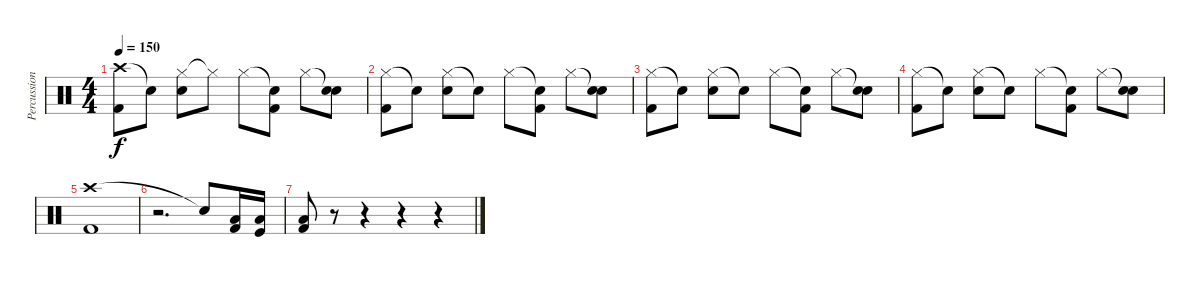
\track ("Percussion" "Percussion") {instrument percussion}
\staff {score}
\articulation defaults
\ts (4 4)
\tempo 150
\clef neutral
\ks c
("Crash high (hit)" "Kick (hit) 2").8{dy f} "Snare (hit)"{t}.8 ("Hi-Hat (closed)" "Snare (hit) 2").8 "Hi-Hat (closed)"{t}.8 "Hi-Hat (closed)".8 ("Snare (hit)"{t} "Kick (hit) 2").8 "Hi-Hat (closed)".8 ("Snare (hit)"{t} "Snare (hit) 2").8 |
("Hi-Hat (closed)" "Kick (hit) 2").8 "Snare (hit)"{t}.8 ("Hi-Hat (closed)" "Snare (hit) 2").8 "Snare (hit)"{t}.8 "Hi-Hat (closed)".8 ("Snare (hit)"{t} "Kick (hit) 2").8 "Hi-Hat (closed)".8 ("Snare (hit)"{t} "Snare (hit) 2").8 |
("Hi-Hat (closed)" "Kick (hit) 2").8 "Snare (hit)"{t}.8 ("Hi-Hat (closed)" "Snare (hit) 2").8 "Snare (hit)"{t}.8 "Hi-Hat (closed)".8 ("Snare (hit)"{t} "Kick (hit) 2").8 "Hi-Hat (closed)".8 ("Snare (hit)"{t} "Snare (hit) 2").8 |
("Hi-Hat (closed)" "Kick (hit) 2").8 "Snare (hit)"{t}.8 ("Hi-Hat (closed)" "Snare (hit) 2").8 "Snare (hit)"{t}.8 "Hi-Hat (closed)".8 ("Snare (hit)"{t} "Kick (hit) 2").8 "Hi-Hat (closed)".8 ("Snare (hit)"{t} "Snare (hit) 2").8 |
("Crash high (hit)" "Kick (hit) 2").1 |
r.2{d} "Snare (hit)"{t}.8 ("Low Tom (hit)" "Kick (hit) 2").16 ("Low Tom (hit)" "Kick (hit)").16 |
("Low Tom (hit)" "Kick (hit) 2").8 r.8 r.4 r.4 r.4
